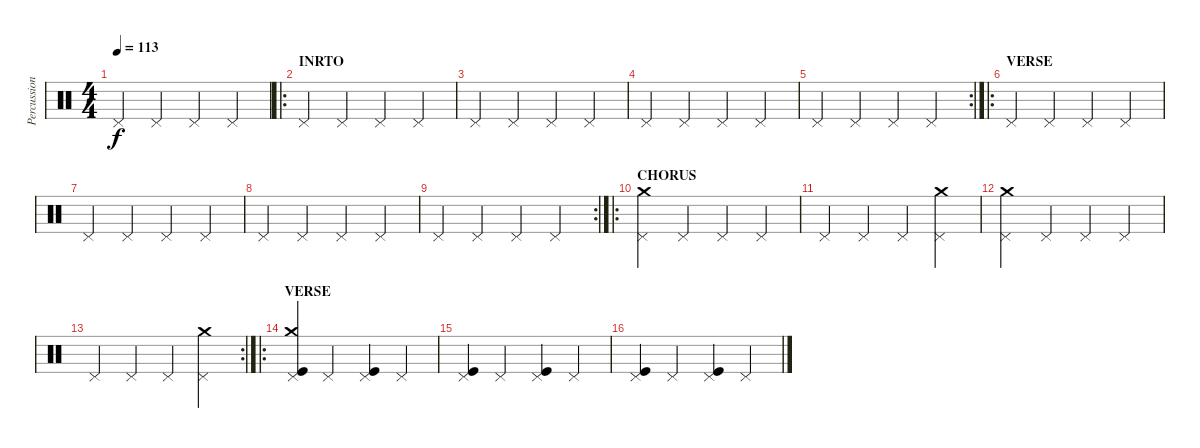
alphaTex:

\track ("Percussion" "Percussion") {instrument percussion}
\staff {score}
\articulation defaults
\ts (4 4)
\tempo 113
\clef neutral
\ks c "Pedal Hi-Hat (hit)".4{dy f} "Pedal Hi-Hat (hit)".4 "Pedal Hi-Hat (hit)".4 "Pedal Hi-Hat (hit)".4
|
\ro
\section ("" "INRTO")
"Pedal Hi-Hat (hit)".4 "Pedal Hi-Hat (hit)".4 "Pedal Hi-Hat (hit)".4 "Pedal Hi-Hat (hit)".4 |
"Pedal Hi-Hat (hit)".4 "Pedal Hi-Hat (hit)".4 "Pedal Hi-Hat (hit)".4 "Pedal Hi-Hat (hit)".4 |
"Pedal Hi-Hat (hit)".4 "Pedal Hi-Hat (hit)".4 "Pedal Hi-Hat (hit)".4 "Pedal Hi-Hat (hit)".4 |
\rc 2 "Pedal Hi-Hat (hit)".4 "Pedal Hi-Hat (hit)".4 "Pedal Hi-Hat (hit)".4 "Pedal Hi-Hat (hit)".4
|
\ro
\section ("" "VERSE")
"Pedal Hi-Hat (hit)".4 "Pedal Hi-Hat (hit)".4 "Pedal Hi-Hat (hit)".4 "Pedal Hi-Hat (hit)".4 |
"Pedal Hi-Hat (hit)".4 "Pedal Hi-Hat (hit)".4 "Pedal Hi-Hat (hit)".4 "Pedal Hi-Hat (hit)".4 |
"Pedal Hi-Hat (hit)".4 "Pedal Hi-Hat (hit)".4 "Pedal Hi-Hat (hit)".4 "Pedal Hi-Hat (hit)".4 |
\rc 2 "Pedal Hi-Hat (hit)".4 "Pedal Hi-Hat (hit)".4 "Pedal Hi-Hat (hit)".4 "Pedal Hi-Hat (hit)".4
|
\ro
\section ("" "CHORUS")
("Crash medium (hit)" "Pedal Hi-Hat (hit)").4 "Pedal Hi-Hat (hit)".4 "Pedal Hi-Hat (hit)".4 "Pedal Hi-Hat (hit)".4 |
"Pedal Hi-Hat (hit)".4 "Pedal Hi-Hat (hit)".4 "Pedal Hi-Hat (hit)".4 ("Crash medium (hit)" "Pedal Hi-Hat (hit)").4 |
("Crash medium (hit)" "Pedal Hi-Hat (hit)").4 "Pedal Hi-Hat (hit)".4 "Pedal Hi-Hat (hit)".4 "Pedal Hi-Hat (hit)".4 |
\rc 2 "Pedal Hi-Hat (hit)".4 "Pedal Hi-Hat (hit)".4 "Pedal Hi-Hat (hit)".4
("Crash medium (hit)" "Pedal Hi-Hat (hit)").4 |
\ro
\section ("" "VERSE")
("Crash medium (hit)" "Kick (hit)" "Pedal Hi-Hat (hit)").4 "Pedal Hi-Hat (hit)".4 ("Kick (hit)" "Pedal Hi-Hat (hit)").4 "Pedal Hi-Hat (hit)".4 |
("Kick (hit)" "Pedal Hi-Hat (hit)").4 "Pedal Hi-Hat (hit)".4 ("Kick (hit)" "Pedal Hi-Hat (hit)").4 "Pedal Hi-Hat (hit)".4 |
("Kick (hit)" "Pedal Hi-Hat (hit)").4 "Pedal Hi-Hat (hit)".4 ("Kick (hit)" "Pedal Hi-Hat (hit)").4 "Pedal Hi-Hat (hit)".4
